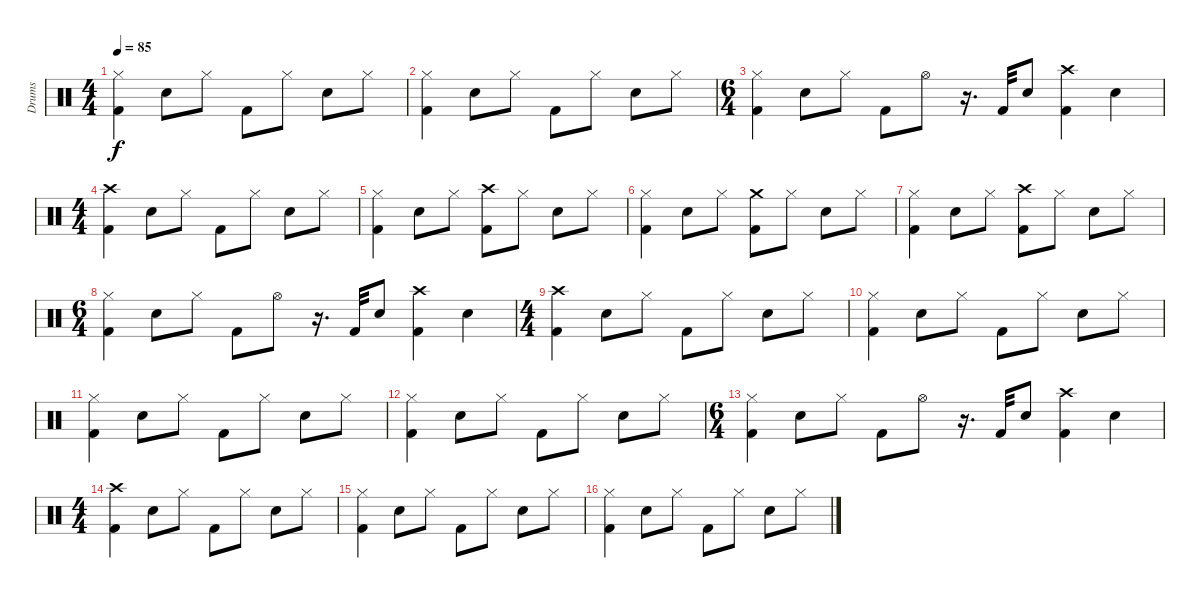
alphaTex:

\track ("Drums" "Drums") {instrument percussion}
\staff {score}
\articulation defaults
\ts (4 4)
\tempo 85
\clef neutral
\ks c
("Kick (hit) 2" "Hi-Hat (closed)").4{dy f} "Snare (hit) 2".8 "Hi-Hat (closed)".8 "Kick (hit) 2".8 "Hi-Hat (closed)".8 "Snare (hit) 2".8 "Hi-Hat (closed)".8 |
("Kick (hit) 2" "Hi-Hat (closed)").4 "Snare (hit) 2".8 "Hi-Hat (closed)".8 "Kick (hit) 2".8 "Hi-Hat (closed)".8 "Snare (hit) 2".8 "Hi-Hat (closed)".8 |
\ts (6 4)
("Kick (hit) 2" "Hi-Hat (closed)").4 "Snare (hit) 2".8 "Hi-Hat (closed)".8 "Kick (hit) 2".8 "Hi-Hat (open)".8 r.16{d} "Kick (hit) 2".32 "Snare (hit) 2".8 ("Kick (hit) 2" "Crash high (hit)").4 "Snare (hit) 2".4 |
\ts (4 4)
("Kick (hit) 2" "Crash high (hit)").4 "Snare (hit) 2".8 "Hi-Hat (closed)".8 "Kick (hit) 2".8 "Hi-Hat (closed)".8 "Snare (hit) 2".8 "Hi-Hat (closed)".8 |
("Kick (hit) 2" "Hi-Hat (closed)").4 "Snare (hit) 2".8 "Hi-Hat (closed)".8 ("Kick (hit) 2" "Crash high (hit)").8 "Hi-Hat (closed)".8 "Snare (hit) 2".8 "Hi-Hat (closed)".8 |
("Kick (hit) 2" "Hi-Hat (closed)").4 "Snare (hit) 2".8 "Hi-Hat (closed)".8 ("Kick (hit) 2" "Crash medium (hit)").8 "Hi-Hat (closed)".8 "Snare (hit) 2".8 "Hi-Hat (closed)".8 |
("Kick (hit) 2" "Hi-Hat (closed)").4 "Snare (hit) 2".8 "Hi-Hat (closed)".8 ("Kick (hit) 2" "Crash high (hit)").8 "Hi-Hat (closed)".8 "Snare (hit) 2".8 "Hi-Hat (closed)".8 |
\ts (6 4)
("Kick (hit) 2" "Hi-Hat (closed)").4 "Snare (hit) 2".8 "Hi-Hat (closed)".8 "Kick (hit) 2".8 "Hi-Hat (open)".8 r.16{d} "Kick (hit) 2".32 "Snare (hit) 2".8 ("Kick (hit) 2" "Crash high (hit)").4 "Snare (hit) 2".4 |
\ts (4 4)
("Kick (hit) 2" "Crash high (hit)").4 "Snare (hit) 2".8 "Hi-Hat (closed)".8 "Kick (hit) 2".8 "Hi-Hat (closed)".8 "Snare (hit) 2".8 "Hi-Hat (closed)".8 |
("Kick (hit) 2" "Hi-Hat (closed)").4 "Snare (hit) 2".8 "Hi-Hat (closed)".8 "Kick (hit) 2".8 "Hi-Hat (closed)".8 "Snare (hit) 2".8 "Hi-Hat (closed)".8 |
("Kick (hit) 2" "Hi-Hat (closed)").4 "Snare (hit) 2".8 "Hi-Hat (closed)".8 "Kick (hit) 2".8 "Hi-Hat (closed)".8 "Snare (hit) 2".8 "Hi-Hat (closed)".8 |
("Kick (hit) 2" "Hi-Hat (closed)").4 "Snare (hit) 2".8 "Hi-Hat (closed)".8 "Kick (hit) 2".8 "Hi-Hat (closed)".8 "Snare (hit) 2".8 "Hi-Hat (closed)".8 |
\ts (6 4)
("Kick (hit) 2" "Hi-Hat (closed)").4 "Snare (hit) 2".8 "Hi-Hat (closed)".8 "Kick (hit) 2".8 "Hi-Hat (open)".8 r.16{d} "Kick (hit) 2".32 "Snare (hit) 2".8 ("Kick (hit) 2" "Crash high (hit)").4 "Snare (hit) 2".4 |
\ts (4 4)
("Kick (hit) 2" "Crash high (hit)").4 "Snare (hit) 2".8 "Hi-Hat (closed)".8 "Kick (hit) 2".8 "Hi-Hat (closed)".8 "Snare (hit) 2".8 "Hi-Hat (closed)".8 |
("Kick (hit) 2" "Hi-Hat (closed)").4 "Snare (hit) 2".8 "Hi-Hat (closed)".8 "Kick (hit) 2".8 "Hi-Hat (closed)".8 "Snare (hit) 2".8 "Hi-Hat (closed)".8 |
("Kick (hit) 2" "Hi-Hat (closed)").4 "Snare (hit) 2".8 "Hi-Hat (closed)".8 "Kick (hit) 2".8 "Hi-Hat (closed)".8 "Snare (hit) 2".8 "Hi-Hat (closed)".8
